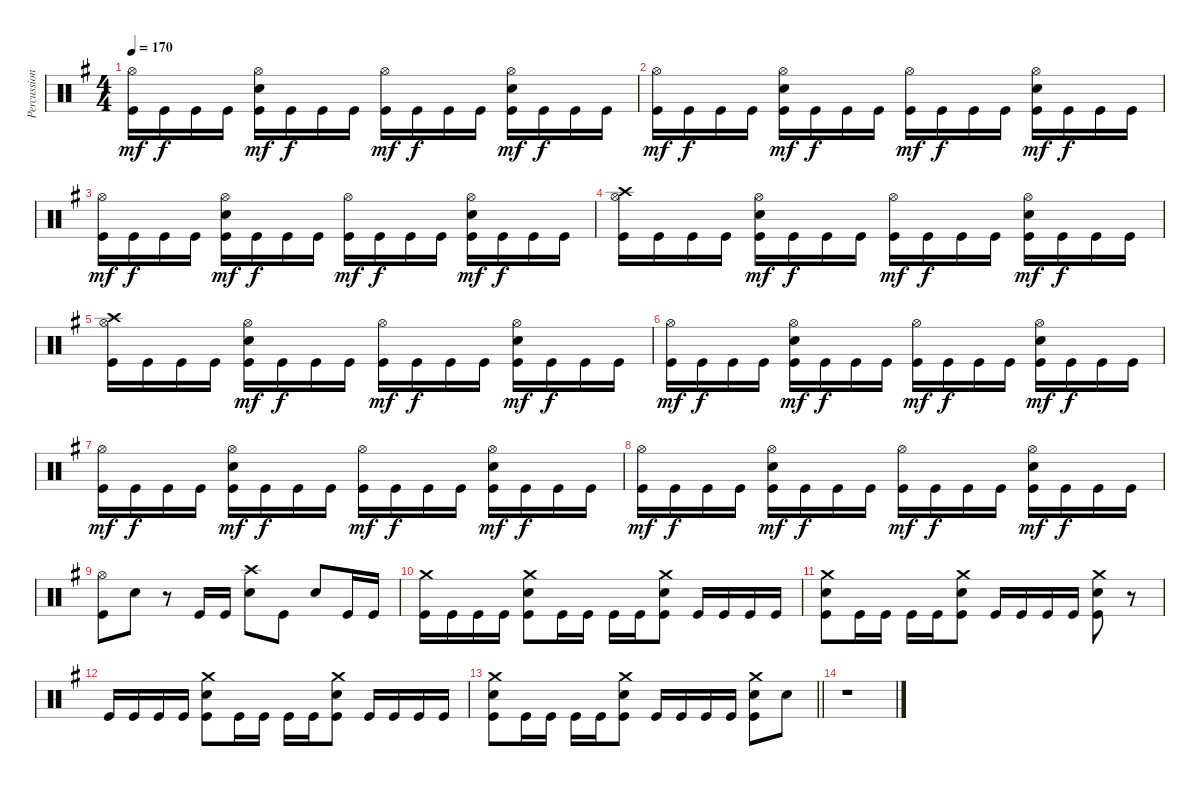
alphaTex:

\track ("Percussion" "Percussion") {instrument percussion}
\staff {score}
\articulation defaults
\ts (4 4)
\tempo 170
\clef neutral
\ks g
("Hi-Hat (open)" "Kick (hit)").16{dy mf} "Kick (hit)".16{dy f} "Kick (hit)".16 "Kick (hit)".16 ("Hi-Hat (open)" "Snare (hit) 2" "Kick (hit)").16{dy mf} "Kick (hit)".16{dy f} "Kick (hit)".16 "Kick (hit)".16 ("Hi-Hat (open)" "Kick (hit)").16{dy mf} "Kick (hit)".16{dy f} "Kick (hit)".16 "Kick (hit)".16 ("Hi-Hat (open)" "Snare (hit) 2" "Kick (hit)").16{dy mf} "Kick (hit)".16{dy f} "Kick (hit)".16 "Kick (hit)".16 |
("Hi-Hat (open)" "Kick (hit)").16{dy mf} "Kick (hit)".16{dy f} "Kick (hit)".16 "Kick (hit)".16 ("Hi-Hat (open)" "Snare (hit) 2" "Kick (hit)").16{dy mf} "Kick (hit)".16{dy f} "Kick (hit)".16 "Kick (hit)".16 ("Hi-Hat (open)" "Kick (hit)").16{dy mf} "Kick (hit)".16{dy f} "Kick (hit)".16 "Kick (hit)".16 ("Hi-Hat (open)" "Snare (hit) 2" "Kick (hit)").16{dy mf} "Kick (hit)".16{dy f} "Kick (hit)".16 "Kick (hit)".16 |
("Hi-Hat (open)" "Kick (hit)").16{dy mf} "Kick (hit)".16{dy f} "Kick (hit)".16 "Kick (hit)".16 ("Hi-Hat (open)" "Snare (hit) 2" "Kick (hit)").16{dy mf} "Kick (hit)".16{dy f} "Kick (hit)".16 "Kick (hit)".16 ("Hi-Hat (open)" "Kick (hit)").16{dy mf} "Kick (hit)".16{dy f} "Kick (hit)".16 "Kick (hit)".16 ("Hi-Hat (open)" "Snare (hit) 2" "Kick (hit)").16{dy mf} "Kick (hit)".16{dy f} "Kick (hit)".16 "Kick (hit)".16 |
("Crash high (hit)" "Hi-Hat (open)" "Kick (hit)").16 "Kick (hit)".16 "Kick (hit)".16 "Kick (hit)".16 ("Hi-Hat (open)" "Snare (hit) 2" "Kick (hit)").16{dy mf} "Kick (hit)".16{dy f} "Kick (hit)".16 "Kick (hit)".16 ("Hi-Hat (open)" "Kick (hit)").16{dy mf} "Kick (hit)".16{dy f} "Kick (hit)".16 "Kick (hit)".16 ("Hi-Hat (open)" "Snare (hit) 2" "Kick (hit)").16{dy mf} "Kick (hit)".16{dy f} "Kick (hit)".16 "Kick (hit)".16 |
("Crash high (hit)" "Hi-Hat (open)" "Kick (hit)").16 "Kick (hit)".16 "Kick (hit)".16 "Kick (hit)".16 ("Hi-Hat (open)" "Snare (hit) 2" "Kick (hit)").16{dy mf} "Kick (hit)".16{dy f} "Kick (hit)".16 "Kick (hit)".16 ("Hi-Hat (open)" "Kick (hit)").16{dy mf} "Kick (hit)".16{dy f} "Kick (hit)".16 "Kick (hit)".16 ("Hi-Hat (open)" "Snare (hit) 2" "Kick (hit)").16{dy mf} "Kick (hit)".16{dy f} "Kick (hit)".16 "Kick (hit)".16 |
("Hi-Hat (open)" "Kick (hit)").16{dy mf} "Kick (hit)".16{dy f} "Kick (hit)".16 "Kick (hit)".16 ("Hi-Hat (open)" "Snare (hit) 2" "Kick (hit)").16{dy mf} "Kick (hit)".16{dy f} "Kick (hit)".16 "Kick (hit)".16 ("Hi-Hat (open)" "Kick (hit)").16{dy mf} "Kick (hit)".16{dy f} "Kick (hit)".16 "Kick (hit)".16 ("Hi-Hat (open)" "Snare (hit) 2" "Kick (hit)").16{dy mf} "Kick (hit)".16{dy f} "Kick (hit)".16 "Kick (hit)".16 |
("Hi-Hat (open)" "Kick (hit)").16{dy mf} "Kick (hit)".16{dy f} "Kick (hit)".16 "Kick (hit)".16 ("Hi-Hat (open)" "Snare (hit) 2" "Kick (hit)").16{dy mf} "Kick (hit)".16{dy f} "Kick (hit)".16 "Kick (hit)".16 ("Hi-Hat (open)" "Kick (hit)").16{dy mf} "Kick (hit)".16{dy f} "Kick (hit)".16 "Kick (hit)".16 ("Hi-Hat (open)" "Snare (hit) 2" "Kick (hit)").16{dy mf} "Kick (hit)".16{dy f} "Kick (hit)".16 "Kick (hit)".16 |
("Hi-Hat (open)" "Kick (hit)").16{dy mf} "Kick (hit)".16{dy f} "Kick (hit)".16 "Kick (hit)".16 ("Hi-Hat (open)" "Snare (hit) 2" "Kick (hit)").16{dy mf} "Kick (hit)".16{dy f} "Kick (hit)".16 "Kick (hit)".16 ("Hi-Hat (open)" "Kick (hit)").16{dy mf} "Kick (hit)".16{dy f} "Kick (hit)".16 "Kick (hit)".16 ("Hi-Hat (open)" "Snare (hit) 2" "Kick (hit)").16{dy mf} "Kick (hit)".16{dy f} "Kick (hit)".16 "Kick (hit)".16 |
("Hi-Hat (open)" "Kick (hit)").8 "Snare (hit) 2".8 r.8 "Kick (hit)".16 "Kick (hit)".16 ("Crash high (hit)" "Snare (hit) 2").8 "Kick (hit)".8 "Snare (hit) 2".8 "Kick (hit)".16 "Kick (hit)".16 |
("Crash medium (hit)" "Kick (hit)").16 "Kick (hit)".16 "Kick (hit)".16 "Kick (hit)".16 ("Crash medium (hit)" "Snare (hit) 2" "Kick (hit)").8 "Kick (hit)".16 "Kick (hit)".16 "Kick (hit)".16 "Kick (hit)".16 ("Crash medium (hit)" "Snare (hit) 2" "Kick (hit)").8 "Kick (hit)".16 "Kick (hit)".16 "Kick (hit)".16 "Kick (hit)".16 |
("Crash medium (hit)" "Snare (hit) 2" "Kick (hit)").8 "Kick (hit)".16 "Kick (hit)".16 "Kick (hit)".16 "Kick (hit)".16 ("Crash medium (hit)" "Snare (hit) 2" "Kick (hit)").8 "Kick (hit)".16 "Kick (hit)".16 "Kick (hit)".16 "Kick (hit)".16 ("Crash medium (hit)" "Snare (hit) 2" "Kick (hit)").8 r.8 |
"Kick (hit)".16 "Kick (hit)".16 "Kick (hit)".16 "Kick (hit)".16 ("Crash medium (hit)" "Snare (hit) 2" "Kick (hit)").8 "Kick (hit)".16 "Kick (hit)".16 "Kick (hit)".16 "Kick (hit)".16 ("Crash medium (hit)" "Snare (hit) 2" "Kick (hit)").8 "Kick (hit)".16 "Kick (hit)".16 "Kick (hit)".16 "Kick (hit)".16 |
\barLineRight lightlight
("Crash medium (hit)" "Snare (hit) 2" "Kick (hit)").8 "Kick (hit)".16 "Kick (hit)".16 "Kick (hit)".16 "Kick (hit)".16 ("Crash medium (hit)" "Snare (hit) 2" "Kick (hit)").8 "Kick (hit)".16 "Kick (hit)".16 "Kick (hit)".16 "Kick (hit)".16 ("Crash medium (hit)" "Snare (hit) 2" "Kick (hit)").8 "Snare (hit) 2".8 |
r.1
